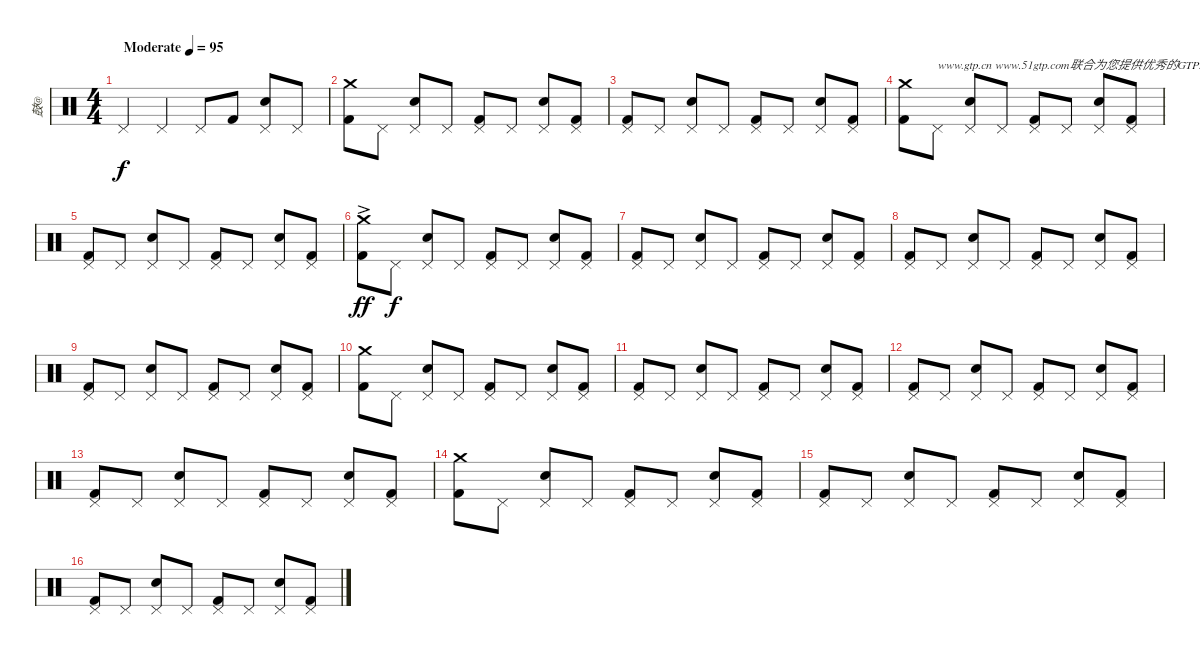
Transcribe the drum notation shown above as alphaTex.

\track ("鼓@" "鼓@") {instrument percussion}
\staff {score}
\articulation defaults
\ts (4 4)
\tempo (95 "Moderate")
\clef neutral
\ks c "Pedal Hi-Hat (hit)".4{dy f} "Pedal Hi-Hat (hit)".4 "Pedal Hi-Hat (hit)".8 "Kick (hit) 2".8
("Pedal Hi-Hat (hit)" "Electric Snare (hit)").8 "Pedal Hi-Hat (hit)".8 |
("Crash medium (hit)" "Kick (hit) 2").8 "Pedal Hi-Hat (hit)".8 ("Pedal Hi-Hat (hit)" "Electric Snare (hit)").8 "Pedal Hi-Hat (hit)".8 ("Pedal Hi-Hat (hit)" "Kick (hit) 2").8 "Pedal Hi-Hat (hit)".8 ("Pedal Hi-Hat (hit)" "Electric Snare (hit)").8 ("Pedal Hi-Hat (hit)" "Kick (hit) 2").8 |
("Pedal Hi-Hat (hit)" "Kick (hit) 2").8 "Pedal Hi-Hat (hit)".8 ("Pedal Hi-Hat (hit)" "Electric Snare (hit)").8 "Pedal Hi-Hat (hit)".8 ("Pedal Hi-Hat (hit)" "Kick (hit) 2").8 "Pedal Hi-Hat (hit)".8 ("Pedal Hi-Hat (hit)" "Electric Snare (hit)").8 ("Pedal Hi-Hat (hit)" "Kick (hit) 2").8 |
("Crash medium (hit)" "Kick (hit) 2").8 "Pedal Hi-Hat (hit)".8{txt "www.gtp.cn www.51gtp.com联合为您提供优秀的GTP!"} ("Pedal Hi-Hat (hit)" "Electric Snare (hit)").8 "Pedal Hi-Hat (hit)".8 ("Pedal Hi-Hat (hit)" "Kick (hit) 2").8 "Pedal Hi-Hat (hit)".8 ("Pedal Hi-Hat (hit)" "Electric Snare (hit)").8 ("Pedal Hi-Hat (hit)" "Kick (hit) 2").8 |
("Pedal Hi-Hat (hit)" "Kick (hit) 2").8 "Pedal Hi-Hat (hit)".8 ("Pedal Hi-Hat (hit)" "Electric Snare (hit)").8 "Pedal Hi-Hat (hit)".8 ("Pedal Hi-Hat (hit)" "Kick (hit) 2").8 "Pedal Hi-Hat (hit)".8 ("Pedal Hi-Hat (hit)" "Electric Snare (hit)").8 ("Pedal Hi-Hat (hit)" "Kick (hit) 2").8 |
("Crash medium (hit)"{ac} "Kick (hit) 2"{ac}).8{dy ff} "Pedal Hi-Hat (hit)".8{dy f} ("Pedal Hi-Hat (hit)" "Electric Snare (hit)").8 "Pedal Hi-Hat (hit)".8 ("Pedal Hi-Hat (hit)" "Kick (hit) 2").8 "Pedal Hi-Hat (hit)".8 ("Pedal Hi-Hat (hit)" "Electric Snare (hit)").8 ("Pedal Hi-Hat (hit)" "Kick (hit) 2").8 |
("Pedal Hi-Hat (hit)" "Kick (hit) 2").8 "Pedal Hi-Hat (hit)".8 ("Pedal Hi-Hat (hit)" "Electric Snare (hit)").8 "Pedal Hi-Hat (hit)".8 ("Pedal Hi-Hat (hit)" "Kick (hit) 2").8 "Pedal Hi-Hat (hit)".8 ("Pedal Hi-Hat (hit)" "Electric Snare (hit)").8 ("Pedal Hi-Hat (hit)" "Kick (hit) 2").8 |
("Pedal Hi-Hat (hit)" "Kick (hit) 2").8 "Pedal Hi-Hat (hit)".8 ("Pedal Hi-Hat (hit)" "Electric Snare (hit)").8 "Pedal Hi-Hat (hit)".8 ("Pedal Hi-Hat (hit)" "Kick (hit) 2").8 "Pedal Hi-Hat (hit)".8 ("Pedal Hi-Hat (hit)" "Electric Snare (hit)").8 ("Pedal Hi-Hat (hit)" "Kick (hit) 2").8 |
("Pedal Hi-Hat (hit)" "Kick (hit) 2").8 "Pedal Hi-Hat (hit)".8 ("Pedal Hi-Hat (hit)" "Electric Snare (hit)").8 "Pedal Hi-Hat (hit)".8 ("Pedal Hi-Hat (hit)" "Kick (hit) 2").8 "Pedal Hi-Hat (hit)".8 ("Pedal Hi-Hat (hit)" "Electric Snare (hit)").8 ("Pedal Hi-Hat (hit)" "Kick (hit) 2").8 |
("Crash medium (hit)" "Kick (hit) 2").8 "Pedal Hi-Hat (hit)".8 ("Pedal Hi-Hat (hit)" "Electric Snare (hit)").8 "Pedal Hi-Hat (hit)".8 ("Pedal Hi-Hat (hit)" "Kick (hit) 2").8 "Pedal Hi-Hat (hit)".8 ("Pedal Hi-Hat (hit)" "Electric Snare (hit)").8 ("Pedal Hi-Hat (hit)" "Kick (hit) 2").8 |
("Pedal Hi-Hat (hit)" "Kick (hit) 2").8 "Pedal Hi-Hat (hit)".8 ("Pedal Hi-Hat (hit)" "Electric Snare (hit)").8 "Pedal Hi-Hat (hit)".8 ("Pedal Hi-Hat (hit)" "Kick (hit) 2").8 "Pedal Hi-Hat (hit)".8 ("Pedal Hi-Hat (hit)" "Electric Snare (hit)").8 ("Pedal Hi-Hat (hit)" "Kick (hit) 2").8 |
("Pedal Hi-Hat (hit)" "Kick (hit) 2").8 "Pedal Hi-Hat (hit)".8 ("Pedal Hi-Hat (hit)" "Electric Snare (hit)").8 "Pedal Hi-Hat (hit)".8 ("Pedal Hi-Hat (hit)" "Kick (hit) 2").8 "Pedal Hi-Hat (hit)".8 ("Pedal Hi-Hat (hit)" "Electric Snare (hit)").8 ("Pedal Hi-Hat (hit)" "Kick (hit) 2").8 |
("Pedal Hi-Hat (hit)" "Kick (hit) 2").8 "Pedal Hi-Hat (hit)".8 ("Pedal Hi-Hat (hit)" "Electric Snare (hit)").8 "Pedal Hi-Hat (hit)".8 ("Pedal Hi-Hat (hit)" "Kick (hit) 2").8 "Pedal Hi-Hat (hit)".8 ("Pedal Hi-Hat (hit)" "Electric Snare (hit)").8 ("Pedal Hi-Hat (hit)" "Kick (hit) 2").8 |
("Crash medium (hit)" "Kick (hit) 2").8 "Pedal Hi-Hat (hit)".8 ("Pedal Hi-Hat (hit)" "Electric Snare (hit)").8 "Pedal Hi-Hat (hit)".8 ("Pedal Hi-Hat (hit)" "Kick (hit) 2").8 "Pedal Hi-Hat (hit)".8 ("Pedal Hi-Hat (hit)" "Electric Snare (hit)").8 ("Pedal Hi-Hat (hit)" "Kick (hit) 2").8 |
("Pedal Hi-Hat (hit)" "Kick (hit) 2").8 "Pedal Hi-Hat (hit)".8 ("Pedal Hi-Hat (hit)" "Electric Snare (hit)").8 "Pedal Hi-Hat (hit)".8 ("Pedal Hi-Hat (hit)" "Kick (hit) 2").8 "Pedal Hi-Hat (hit)".8 ("Pedal Hi-Hat (hit)" "Electric Snare (hit)").8 ("Pedal Hi-Hat (hit)" "Kick (hit) 2").8 |
("Pedal Hi-Hat (hit)" "Kick (hit) 2").8 "Pedal Hi-Hat (hit)".8 ("Pedal Hi-Hat (hit)" "Electric Snare (hit)").8 "Pedal Hi-Hat (hit)".8 ("Pedal Hi-Hat (hit)" "Kick (hit) 2").8 "Pedal Hi-Hat (hit)".8 ("Pedal Hi-Hat (hit)" "Electric Snare (hit)").8 ("Pedal Hi-Hat (hit)" "Kick (hit) 2").8
